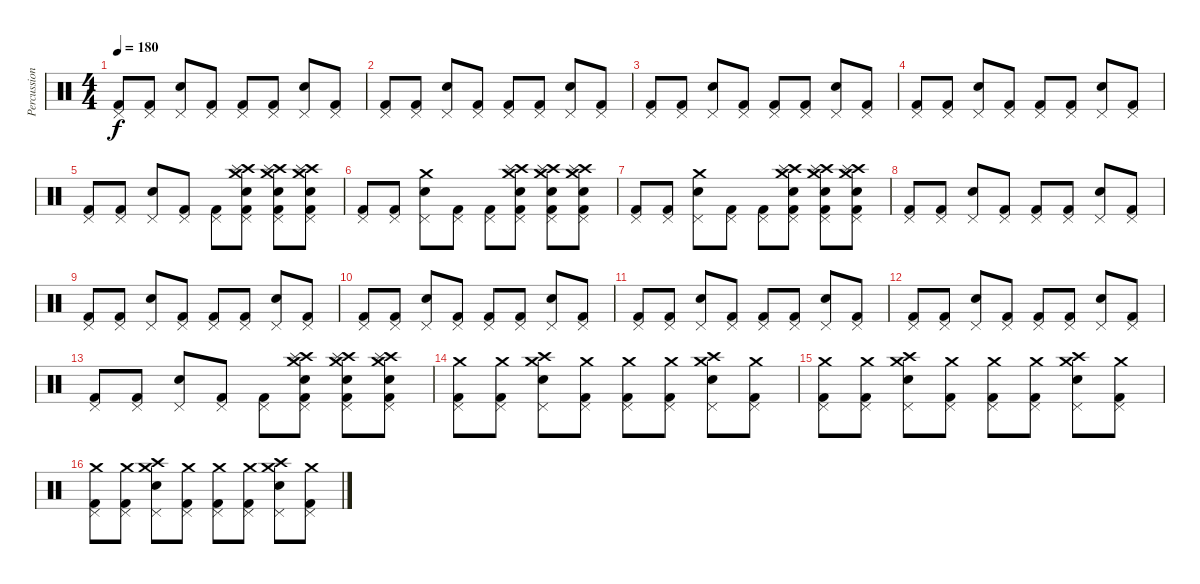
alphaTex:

\track ("Percussion" "Percussion") {instrument percussion}
\staff
\articulation defaults
\ts (4 4)
\tempo 180
\clef neutral
\ks c
("Pedal Hi-Hat (hit)" "Kick (hit) 2").8{dy f} ("Pedal Hi-Hat (hit)" "Kick (hit) 2").8 ("Pedal Hi-Hat (hit)" "Snare (hit) 2").8 ("Pedal Hi-Hat (hit)" "Kick (hit) 2").8 ("Pedal Hi-Hat (hit)" "Kick (hit) 2").8 ("Pedal Hi-Hat (hit)" "Kick (hit) 2").8 ("Pedal Hi-Hat (hit)" "Snare (hit) 2").8 ("Pedal Hi-Hat (hit)" "Kick (hit) 2").8 |
("Pedal Hi-Hat (hit)" "Kick (hit) 2").8 ("Pedal Hi-Hat (hit)" "Kick (hit) 2").8 ("Pedal Hi-Hat (hit)" "Snare (hit) 2").8 ("Pedal Hi-Hat (hit)" "Kick (hit) 2").8 ("Pedal Hi-Hat (hit)" "Kick (hit) 2").8 ("Pedal Hi-Hat (hit)" "Kick (hit) 2").8 ("Pedal Hi-Hat (hit)" "Snare (hit) 2").8 ("Pedal Hi-Hat (hit)" "Kick (hit) 2").8 |
("Pedal Hi-Hat (hit)" "Kick (hit) 2").8 ("Pedal Hi-Hat (hit)" "Kick (hit) 2").8 ("Pedal Hi-Hat (hit)" "Snare (hit) 2").8 ("Pedal Hi-Hat (hit)" "Kick (hit) 2").8 ("Pedal Hi-Hat (hit)" "Kick (hit) 2").8 ("Pedal Hi-Hat (hit)" "Kick (hit) 2").8 ("Pedal Hi-Hat (hit)" "Snare (hit) 2").8 ("Pedal Hi-Hat (hit)" "Kick (hit) 2").8 |
("Pedal Hi-Hat (hit)" "Kick (hit) 2").8 ("Pedal Hi-Hat (hit)" "Kick (hit) 2").8 ("Pedal Hi-Hat (hit)" "Snare (hit) 2").8 ("Pedal Hi-Hat (hit)" "Kick (hit) 2").8 ("Pedal Hi-Hat (hit)" "Kick (hit) 2").8 ("Pedal Hi-Hat (hit)" "Kick (hit) 2").8 ("Pedal Hi-Hat (hit)" "Snare (hit) 2").8 ("Pedal Hi-Hat (hit)" "Kick (hit) 2").8 |
("Pedal Hi-Hat (hit)" "Kick (hit) 2").8 ("Pedal Hi-Hat (hit)" "Kick (hit) 2").8 ("Pedal Hi-Hat (hit)" "Snare (hit) 2").8 ("Pedal Hi-Hat (hit)" "Kick (hit) 2").8 ("Pedal Hi-Hat (hit)" "Kick (hit) 2").8 ("Pedal Hi-Hat (hit)" "Crash high (hit)" "Crash medium (hit)" "Splash (hit)" "Snare (hit) 2" "Kick (hit) 2").8 ("Pedal Hi-Hat (hit)" "Crash high (hit)" "Crash medium (hit)" "Splash (hit)" "Snare (hit) 2" "Kick (hit) 2").8 ("Pedal Hi-Hat (hit)" "Crash high (hit)" "Crash medium (hit)" "Splash (hit)" "Snare (hit) 2" "Kick (hit) 2").8 |
("Pedal Hi-Hat (hit)" "Kick (hit) 2").8 ("Pedal Hi-Hat (hit)" "Kick (hit) 2").8 ("Pedal Hi-Hat (hit)" "Crash medium (hit)" "Snare (hit) 2").8 ("Pedal Hi-Hat (hit)" "Kick (hit) 2").8 ("Pedal Hi-Hat (hit)" "Kick (hit) 2").8 ("Pedal Hi-Hat (hit)" "Crash high (hit)" "Crash medium (hit)" "Splash (hit)" "Snare (hit) 2" "Kick (hit) 2").8 ("Pedal Hi-Hat (hit)" "Crash high (hit)" "Crash medium (hit)" "Splash (hit)" "Snare (hit) 2" "Kick (hit) 2").8 ("Pedal Hi-Hat (hit)" "Crash high (hit)" "Crash medium (hit)" "Splash (hit)" "Snare (hit) 2" "Kick (hit) 2").8 |
("Pedal Hi-Hat (hit)" "Kick (hit) 2").8 ("Pedal Hi-Hat (hit)" "Kick (hit) 2").8 ("Pedal Hi-Hat (hit)" "Crash medium (hit)" "Snare (hit) 2").8 ("Pedal Hi-Hat (hit)" "Kick (hit) 2").8 ("Pedal Hi-Hat (hit)" "Kick (hit) 2").8 ("Pedal Hi-Hat (hit)" "Crash high (hit)" "Crash medium (hit)" "Splash (hit)" "Snare (hit) 2" "Kick (hit) 2").8 ("Pedal Hi-Hat (hit)" "Crash high (hit)" "Crash medium (hit)" "Splash (hit)" "Snare (hit) 2" "Kick (hit) 2").8 ("Pedal Hi-Hat (hit)" "Crash high (hit)" "Crash medium (hit)" "Splash (hit)" "Snare (hit) 2" "Kick (hit) 2").8 |
("Pedal Hi-Hat (hit)" "Kick (hit) 2").8 ("Pedal Hi-Hat (hit)" "Kick (hit) 2").8 ("Pedal Hi-Hat (hit)" "Snare (hit) 2").8 ("Pedal Hi-Hat (hit)" "Kick (hit) 2").8 ("Pedal Hi-Hat (hit)" "Kick (hit) 2").8 ("Pedal Hi-Hat (hit)" "Kick (hit) 2").8 ("Pedal Hi-Hat (hit)" "Snare (hit) 2").8 ("Pedal Hi-Hat (hit)" "Kick (hit) 2").8 |
("Pedal Hi-Hat (hit)" "Kick (hit) 2").8 ("Pedal Hi-Hat (hit)" "Kick (hit) 2").8 ("Pedal Hi-Hat (hit)" "Snare (hit) 2").8 ("Pedal Hi-Hat (hit)" "Kick (hit) 2").8 ("Pedal Hi-Hat (hit)" "Kick (hit) 2").8 ("Pedal Hi-Hat (hit)" "Kick (hit) 2").8 ("Pedal Hi-Hat (hit)" "Snare (hit) 2").8 ("Pedal Hi-Hat (hit)" "Kick (hit) 2").8 |
("Pedal Hi-Hat (hit)" "Kick (hit) 2").8 ("Pedal Hi-Hat (hit)" "Kick (hit) 2").8 ("Pedal Hi-Hat (hit)" "Snare (hit) 2").8 ("Pedal Hi-Hat (hit)" "Kick (hit) 2").8 ("Pedal Hi-Hat (hit)" "Kick (hit) 2").8 ("Pedal Hi-Hat (hit)" "Kick (hit) 2").8 ("Pedal Hi-Hat (hit)" "Snare (hit) 2").8 ("Pedal Hi-Hat (hit)" "Kick (hit) 2").8 |
("Pedal Hi-Hat (hit)" "Kick (hit) 2").8 ("Pedal Hi-Hat (hit)" "Kick (hit) 2").8 ("Pedal Hi-Hat (hit)" "Snare (hit) 2").8 ("Pedal Hi-Hat (hit)" "Kick (hit) 2").8 ("Pedal Hi-Hat (hit)" "Kick (hit) 2").8 ("Pedal Hi-Hat (hit)" "Kick (hit) 2").8 ("Pedal Hi-Hat (hit)" "Snare (hit) 2").8 ("Pedal Hi-Hat (hit)" "Kick (hit) 2").8 |
("Pedal Hi-Hat (hit)" "Kick (hit) 2").8 ("Pedal Hi-Hat (hit)" "Kick (hit) 2").8 ("Pedal Hi-Hat (hit)" "Snare (hit) 2").8 ("Pedal Hi-Hat (hit)" "Kick (hit) 2").8 ("Pedal Hi-Hat (hit)" "Kick (hit) 2").8 ("Pedal Hi-Hat (hit)" "Kick (hit) 2").8 ("Pedal Hi-Hat (hit)" "Snare (hit) 2").8 ("Pedal Hi-Hat (hit)" "Kick (hit) 2").8 |
("Pedal Hi-Hat (hit)" "Kick (hit) 2").8 ("Pedal Hi-Hat (hit)" "Kick (hit) 2").8 ("Pedal Hi-Hat (hit)" "Snare (hit) 2").8 ("Pedal Hi-Hat (hit)" "Kick (hit) 2").8 ("Pedal Hi-Hat (hit)" "Kick (hit) 2").8 ("Pedal Hi-Hat (hit)" "Crash high (hit)" "Crash medium (hit)" "Splash (hit)" "Snare (hit) 2" "Kick (hit) 2").8 ("Pedal Hi-Hat (hit)" "Crash high (hit)" "Crash medium (hit)" "Splash (hit)" "Snare (hit) 2" "Kick (hit) 2").8 ("Pedal Hi-Hat (hit)" "Crash high (hit)" "Crash medium (hit)" "Splash (hit)" "Snare (hit) 2" "Kick (hit) 2").8 |
("Pedal Hi-Hat (hit)" "Crash medium (hit)" "Kick (hit) 2").8 ("Pedal Hi-Hat (hit)" "Crash medium (hit)" "Kick (hit) 2").8 ("Pedal Hi-Hat (hit)" "Crash high (hit)" "Crash medium (hit)" "Snare (hit) 2").8 ("Pedal Hi-Hat (hit)" "Crash medium (hit)" "Kick (hit) 2").8 ("Pedal Hi-Hat (hit)" "Crash medium (hit)" "Kick (hit) 2").8 ("Pedal Hi-Hat (hit)" "Crash medium (hit)" "Kick (hit) 2").8 ("Pedal Hi-Hat (hit)" "Crash high (hit)" "Crash medium (hit)" "Snare (hit) 2").8 ("Pedal Hi-Hat (hit)" "Crash medium (hit)" "Kick (hit) 2").8 |
("Pedal Hi-Hat (hit)" "Crash medium (hit)" "Kick (hit) 2").8 ("Pedal Hi-Hat (hit)" "Crash medium (hit)" "Kick (hit) 2").8 ("Pedal Hi-Hat (hit)" "Crash high (hit)" "Crash medium (hit)" "Snare (hit) 2").8 ("Pedal Hi-Hat (hit)" "Crash medium (hit)" "Kick (hit) 2").8 ("Pedal Hi-Hat (hit)" "Crash medium (hit)" "Kick (hit) 2").8 ("Pedal Hi-Hat (hit)" "Crash medium (hit)" "Kick (hit) 2").8 ("Pedal Hi-Hat (hit)" "Crash high (hit)" "Crash medium (hit)" "Snare (hit) 2").8 ("Pedal Hi-Hat (hit)" "Crash medium (hit)" "Kick (hit) 2").8 |
("Pedal Hi-Hat (hit)" "Crash medium (hit)" "Kick (hit) 2").8 ("Pedal Hi-Hat (hit)" "Crash medium (hit)" "Kick (hit) 2").8 ("Pedal Hi-Hat (hit)" "Crash high (hit)" "Crash medium (hit)" "Snare (hit) 2").8 ("Pedal Hi-Hat (hit)" "Crash medium (hit)" "Kick (hit) 2").8 ("Pedal Hi-Hat (hit)" "Crash medium (hit)" "Kick (hit) 2").8 ("Pedal Hi-Hat (hit)" "Crash medium (hit)" "Kick (hit) 2").8 ("Pedal Hi-Hat (hit)" "Crash high (hit)" "Crash medium (hit)" "Snare (hit) 2").8 ("Pedal Hi-Hat (hit)" "Crash medium (hit)" "Kick (hit) 2").8
